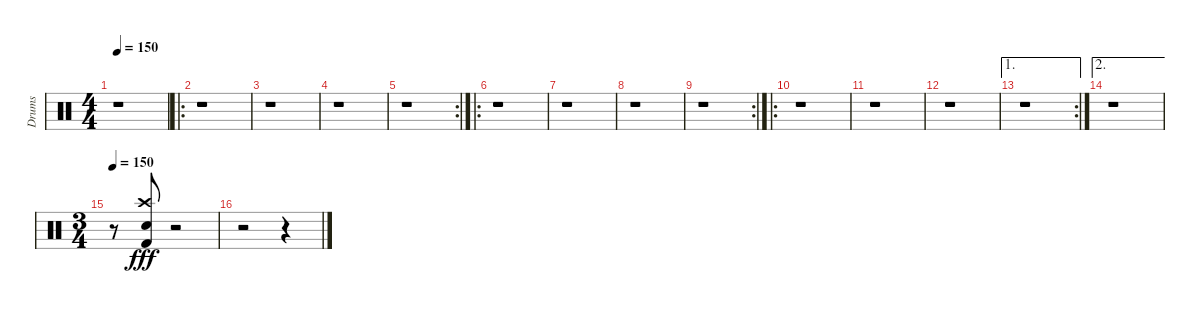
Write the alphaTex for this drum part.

\track ("Drums" "Drums") {instrument percussion}
\staff {score}
\articulation defaults
\ts (4 4)
\tempo 150
\tempo 125
\tempo 150
\clef neutral
\ks c
r.1{dy fff} |
\ro
r.1 |
r.1 |
r.1 |
\rc 2
r.1 |
\ro
r.1 |
r.1 |
r.1 |
\rc 2
r.1 |
\ro
r.1 |
r.1 |
r.1 |
\ae 1
\rc 2
r.1 |
\ae 2
r.1 |
\ts (3 4)
\tempo 150
r.8 ("Kick (hit) 2" "Crash high (hit)" "Snare (hit) 2").8 r.2 |
r.2 r.4
